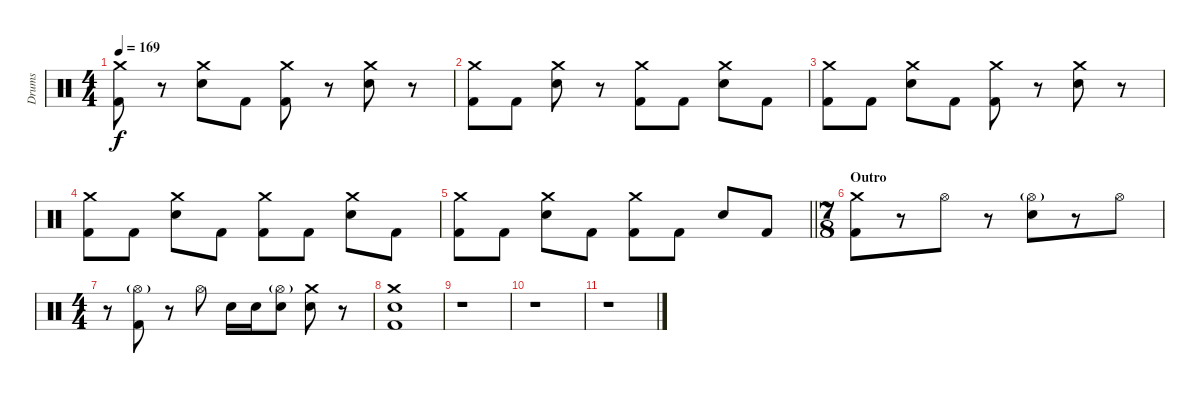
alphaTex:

\track ("Drums" "Drums") {instrument percussion}
\staff {score}
\articulation defaults
\ts (4 4)
\tempo 169
\clef neutral
\ks c
("Crash medium (hit)" "Kick (hit) 2").8{dy f} r.8 ("Crash medium (hit)" "Electric Snare (hit)").8 "Kick (hit) 2".8 ("Crash medium (hit)" "Kick (hit) 2").8 r.8 ("Crash medium (hit)" "Electric Snare (hit)").8 r.8 |
("Crash medium (hit)" "Kick (hit) 2").8 "Kick (hit) 2".8 ("Crash medium (hit)" "Electric Snare (hit)").8 r.8 ("Crash medium (hit)" "Kick (hit) 2").8 "Kick (hit) 2".8 ("Crash medium (hit)" "Electric Snare (hit)").8 "Kick (hit) 2".8 |
("Crash medium (hit)" "Kick (hit) 2").8 "Kick (hit) 2".8 ("Crash medium (hit)" "Electric Snare (hit)").8 "Kick (hit) 2".8 ("Crash medium (hit)" "Kick (hit) 2").8 r.8 ("Crash medium (hit)" "Electric Snare (hit)").8 r.8 |
("Crash medium (hit)" "Kick (hit) 2").8 "Kick (hit) 2".8 ("Crash medium (hit)" "Electric Snare (hit)").8 "Kick (hit) 2".8 ("Crash medium (hit)" "Kick (hit) 2").8 "Kick (hit) 2".8 ("Crash medium (hit)" "Electric Snare (hit)").8 "Kick (hit) 2".8 |
\barLineRight lightlight
("Crash medium (hit)" "Kick (hit) 2").8 "Kick (hit) 2".8 ("Crash medium (hit)" "Electric Snare (hit)").8 "Kick (hit) 2".8 ("Crash medium (hit)" "Kick (hit) 2").8 "Kick (hit) 2".8 "Electric Snare (hit)".8 "Kick (hit) 2".8 |
\ts (7 8)
\section ("" "Outro")
("Crash medium (hit)" "Kick (hit) 2").8 r.8 "Hi-Hat (open)".8 r.8 ("Hi-Hat (open)"{g} "Electric Snare (hit)").8 r.8 "Hi-Hat (open)".8 |
\ts (4 4)
r.8 ("Hi-Hat (open)"{g} "Kick (hit) 2").8 r.8 "Hi-Hat (open)".8 "Electric Snare (hit)".16 "Electric Snare (hit)".16 ("Hi-Hat (open)"{g} "Electric Snare (hit)").8 ("Crash medium (hit)" "Electric Snare (hit)").8 r.8 |
("Crash medium (hit)" "Electric Snare (hit)" "Kick (hit) 2").1 |
r.1 |
r.1 |
r.1
